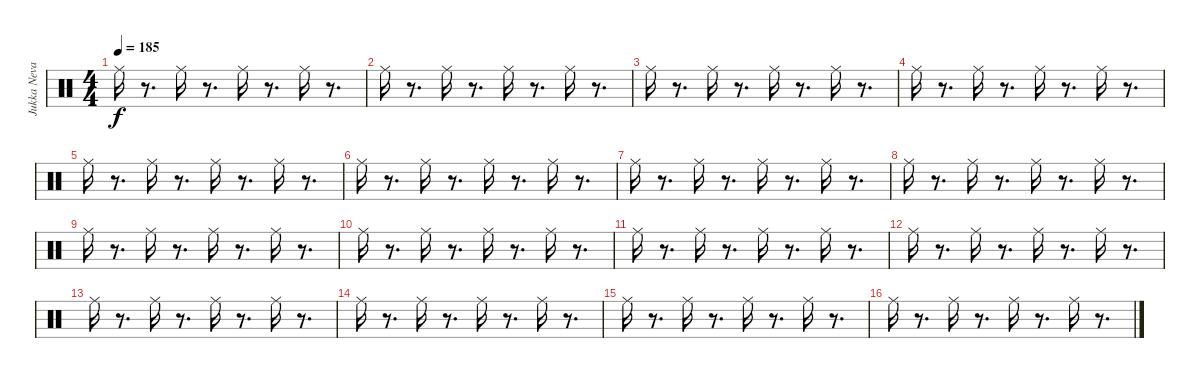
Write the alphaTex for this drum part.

\track ("Jukka Nevalinen" "Jukka Neva") {instrument percussion}
\staff {score}
\articulation defaults
\ts (4 4)
\tempo 185
\clef neutral
\ks c "Ride (middle)".16{dy f}
r.8{d} "Ride (middle)".16 r.8{d} "Ride (middle)".16 r.8{d} "Ride (middle)".16 r.8{d} |
"Ride (middle)".16 r.8{d} "Ride (middle)".16 r.8{d} "Ride (middle)".16 r.8{d} "Ride (middle)".16 r.8{d} |
"Ride (middle)".16 r.8{d} "Ride (middle)".16 r.8{d} "Ride (middle)".16 r.8{d} "Ride (middle)".16 r.8{d} |
"Ride (middle)".16 r.8{d} "Ride (middle)".16 r.8{d} "Ride (middle)".16 r.8{d} "Ride (middle)".16 r.8{d} |
"Ride (middle)".16 r.8{d} "Ride (middle)".16 r.8{d} "Ride (middle)".16 r.8{d} "Ride (middle)".16 r.8{d} |
"Ride (middle)".16 r.8{d} "Ride (middle)".16 r.8{d} "Ride (middle)".16 r.8{d} "Ride (middle)".16 r.8{d} |
"Ride (middle)".16 r.8{d} "Ride (middle)".16 r.8{d} "Ride (middle)".16 r.8{d} "Ride (middle)".16 r.8{d} |
"Ride (middle)".16 r.8{d} "Ride (middle)".16 r.8{d} "Ride (middle)".16 r.8{d} "Ride (middle)".16 r.8{d} |
"Ride (middle)".16 r.8{d} "Ride (middle)".16 r.8{d} "Ride (middle)".16 r.8{d} "Ride (middle)".16 r.8{d} |
"Ride (middle)".16 r.8{d} "Ride (middle)".16 r.8{d} "Ride (middle)".16 r.8{d} "Ride (middle)".16 r.8{d} |
"Ride (middle)".16 r.8{d} "Ride (middle)".16 r.8{d} "Ride (middle)".16 r.8{d} "Ride (middle)".16 r.8{d} |
"Ride (middle)".16 r.8{d} "Ride (middle)".16 r.8{d} "Ride (middle)".16 r.8{d} "Ride (middle)".16 r.8{d} |
"Ride (middle)".16 r.8{d} "Ride (middle)".16 r.8{d} "Ride (middle)".16 r.8{d} "Ride (middle)".16 r.8{d} |
"Ride (middle)".16 r.8{d} "Ride (middle)".16 r.8{d} "Ride (middle)".16 r.8{d} "Ride (middle)".16 r.8{d} |
"Ride (middle)".16 r.8{d} "Ride (middle)".16 r.8{d} "Ride (middle)".16 r.8{d} "Ride (middle)".16 r.8{d} |
"Ride (middle)".16 r.8{d} "Ride (middle)".16 r.8{d} "Ride (middle)".16 r.8{d} "Ride (middle)".16 r.8{d}
